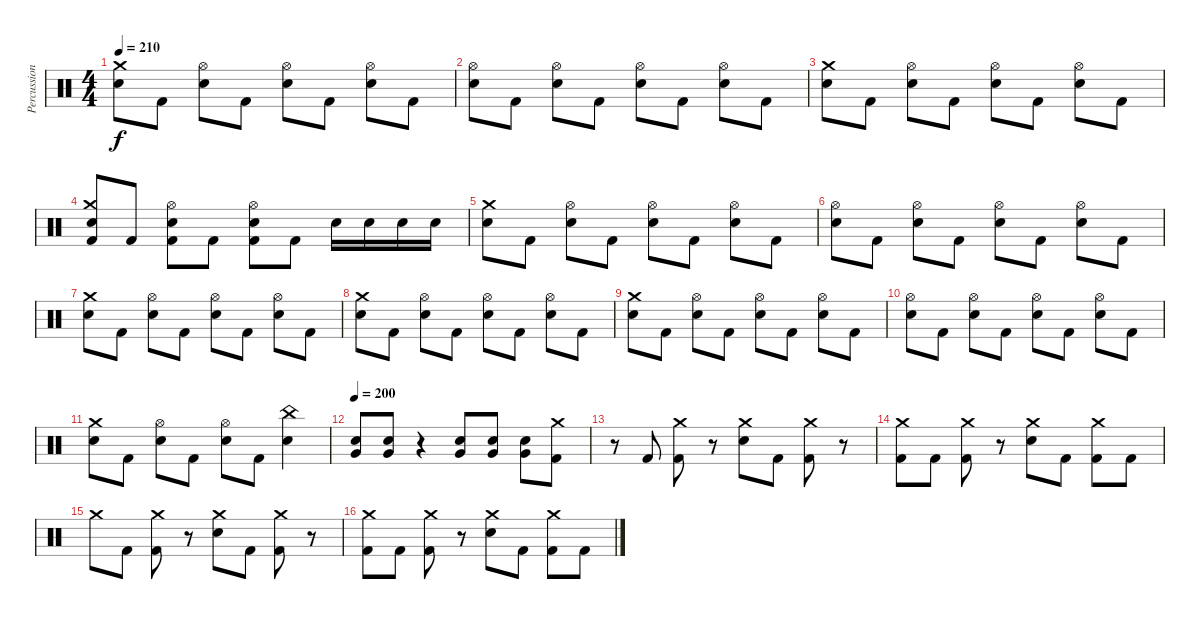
\track ("Percussion" "Percussion") {instrument percussion}
\staff {score}
\articulation defaults
\ts (4 4)
\tempo 210
\clef neutral
\ks c
("Electric Snare (hit)" "Crash medium (hit)").8{dy f} "Kick (hit) 2".8 ("Electric Snare (hit)" "Hi-Hat (open)").8 "Kick (hit) 2".8 ("Electric Snare (hit)" "Hi-Hat (open)").8 "Kick (hit) 2".8 ("Electric Snare (hit)" "Hi-Hat (open)").8 "Kick (hit) 2".8 |
("Electric Snare (hit)" "Hi-Hat (open)").8 "Kick (hit) 2".8 ("Electric Snare (hit)" "Hi-Hat (open)").8 "Kick (hit) 2".8 ("Electric Snare (hit)" "Hi-Hat (open)").8 "Kick (hit) 2".8 ("Electric Snare (hit)" "Hi-Hat (open)").8 "Kick (hit) 2".8 |
("Electric Snare (hit)" "Crash medium (hit)").8 "Kick (hit) 2".8 ("Electric Snare (hit)" "Hi-Hat (open)").8 "Kick (hit) 2".8 ("Electric Snare (hit)" "Hi-Hat (open)").8 "Kick (hit) 2".8 ("Electric Snare (hit)" "Hi-Hat (open)").8 "Kick (hit) 2".8 |
("Kick (hit) 2" "Electric Snare (hit)" "Crash medium (hit)").8 "Kick (hit) 2".8 ("Kick (hit) 2" "Electric Snare (hit)" "Hi-Hat (open)").8 "Kick (hit) 2".8 ("Kick (hit) 2" "Electric Snare (hit)" "Hi-Hat (open)").8 "Kick (hit) 2".8 "Electric Snare (hit)".16 "Electric Snare (hit)".16 "Electric Snare (hit)".16 "Electric Snare (hit)".16 |
("Electric Snare (hit)" "Crash medium (hit)").8 "Kick (hit) 2".8 ("Electric Snare (hit)" "Hi-Hat (open)").8 "Kick (hit) 2".8 ("Electric Snare (hit)" "Hi-Hat (open)").8 "Kick (hit) 2".8 ("Electric Snare (hit)" "Hi-Hat (open)").8 "Kick (hit) 2".8 |
("Electric Snare (hit)" "Hi-Hat (open)").8 "Kick (hit) 2".8 ("Electric Snare (hit)" "Hi-Hat (open)").8 "Kick (hit) 2".8 ("Electric Snare (hit)" "Hi-Hat (open)").8 "Kick (hit) 2".8 ("Electric Snare (hit)" "Hi-Hat (open)").8 "Kick (hit) 2".8 |
("Electric Snare (hit)" "Crash medium (hit)").8 "Kick (hit) 2".8 ("Electric Snare (hit)" "Hi-Hat (open)").8 "Kick (hit) 2".8 ("Electric Snare (hit)" "Hi-Hat (open)").8 "Kick (hit) 2".8 ("Electric Snare (hit)" "Hi-Hat (open)").8 "Kick (hit) 2".8 |
("Electric Snare (hit)" "Crash medium (hit)").8 "Kick (hit) 2".8 ("Electric Snare (hit)" "Hi-Hat (open)").8 "Kick (hit) 2".8 ("Electric Snare (hit)" "Hi-Hat (open)").8 "Kick (hit) 2".8 ("Electric Snare (hit)" "Hi-Hat (open)").8 "Kick (hit) 2".8 |
("Electric Snare (hit)" "Crash medium (hit)").8 "Kick (hit) 2".8 ("Electric Snare (hit)" "Hi-Hat (open)").8 "Kick (hit) 2".8 ("Electric Snare (hit)" "Hi-Hat (open)").8 "Kick (hit) 2".8 ("Electric Snare (hit)" "Hi-Hat (open)").8 "Kick (hit) 2".8 |
("Electric Snare (hit)" "Hi-Hat (open)").8 "Kick (hit) 2".8 ("Electric Snare (hit)" "Hi-Hat (open)").8 "Kick (hit) 2".8 ("Electric Snare (hit)" "Hi-Hat (open)").8 "Kick (hit) 2".8 ("Electric Snare (hit)" "Hi-Hat (open)").8 "Kick (hit) 2".8 |
("Electric Snare (hit)" "Crash medium (hit)").8 "Kick (hit) 2".8 ("Electric Snare (hit)" "Hi-Hat (open)").8 "Kick (hit) 2".8 ("Electric Snare (hit)" "Hi-Hat (open)").8 "Kick (hit) 2".8 ("Electric Snare (hit)" "China (hit)").4 |
\tempo 200
("Electric Snare (hit)" "Very Low Tom (hit)").8 ("Electric Snare (hit)" "Very Low Tom (hit)").8 r.4 ("Electric Snare (hit)" "Very Low Tom (hit)").8 ("Electric Snare (hit)" "Very Low Tom (hit)").8 ("Electric Snare (hit)" "Very Low Tom (hit)").8 ("Kick (hit) 2" "Crash medium (hit)").8 |
r.8 "Kick (hit) 2".8 ("Kick (hit) 2" "Crash medium (hit)").8 r.8 ("Electric Snare (hit)" "Crash medium (hit)").8 "Kick (hit) 2".8 ("Kick (hit) 2" "Crash medium (hit)").8 r.8 |
("Kick (hit) 2" "Crash medium (hit)").8 "Kick (hit) 2".8 ("Kick (hit) 2" "Crash medium (hit)").8 r.8 ("Electric Snare (hit)" "Crash medium (hit)").8 "Kick (hit) 2".8 ("Kick (hit) 2" "Crash medium (hit)").8 "Kick (hit) 2".8 |
"Crash medium (hit)".8 "Kick (hit) 2".8 ("Kick (hit) 2" "Crash medium (hit)").8 r.8 ("Electric Snare (hit)" "Crash medium (hit)").8 "Kick (hit) 2".8 ("Kick (hit) 2" "Crash medium (hit)").8 r.8 |
("Kick (hit) 2" "Crash medium (hit)").8 "Kick (hit) 2".8 ("Kick (hit) 2" "Crash medium (hit)").8 r.8 ("Electric Snare (hit)" "Crash medium (hit)").8 "Kick (hit) 2".8 ("Kick (hit) 2" "Crash medium (hit)").8 "Kick (hit) 2".8
